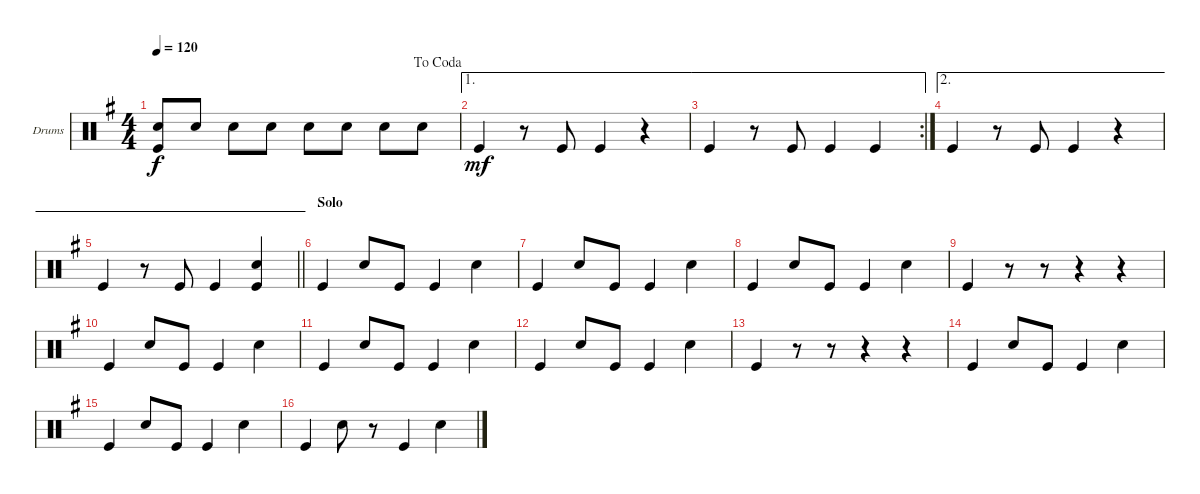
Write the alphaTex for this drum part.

\defaultSystemsLayout 4
\bracketExtendMode groupsimilarinstruments
\useSystemSignSeparator
\multiTrackTrackNamePolicy allsystems
\firstSystemTrackNameOrientation horizontal
\otherSystemsTrackNameOrientation horizontal
\track ("Drumkit" "Drums") {multiBarRest instrument percussion}
\staff {score}
\articulation defaults
\ts (4 4)
\jump dacoda
\tempo 120
\clef neutral
\ks g
("Kick (hit)" "Snare (hit) 2").8{dy f} "Snare (hit) 2".8 "Snare (hit) 2".8 "Snare (hit) 2".8 "Snare (hit) 2".8 "Snare (hit) 2".8 "Snare (hit) 2".8 "Snare (hit) 2".8 |
\ae 1 "Kick (hit)".4{dy mf}
r.8 "Kick (hit)".8 "Kick (hit)".4 r.4 |
\ae 1
\rc 2 "Kick (hit)".4
r.8 "Kick (hit)".8 "Kick (hit)".4 "Kick (hit)".4 |
\ae 2 "Kick (hit)".4
r.8 "Kick (hit)".8 "Kick (hit)".4 r.4 |
\ae 2
\barLineRight lightlight "Kick (hit)".4
r.8 "Kick (hit)".8 "Kick (hit)".4 ("Kick (hit)" "Snare (hit) 2").4 |
\section ("" "Solo")
"Kick (hit)".4 "Snare (hit) 2".8 "Kick (hit)".8 "Kick (hit)".4 "Snare (hit) 2".4 |
"Kick (hit)".4 "Snare (hit) 2".8 "Kick (hit)".8 "Kick (hit)".4 "Snare (hit) 2".4 |
"Kick (hit)".4 "Snare (hit) 2".8 "Kick (hit)".8 "Kick (hit)".4 "Snare (hit) 2".4 |
"Kick (hit)".4 r.8 r.8 r.4 r.4 |
\scale
0.316726 "Kick (hit)".4 "Snare (hit) 2".8 "Kick (hit)".8 "Kick (hit)".4 "Snare (hit) 2".4 |
\scale
0.213523 "Kick (hit)".4 "Snare (hit) 2".8 "Kick (hit)".8 "Kick (hit)".4 "Snare (hit) 2".4 |
\scale
0.214 "Kick (hit)".4 "Snare (hit) 2".8 "Kick (hit)".8 "Kick (hit)".4 "Snare (hit) 2".4 |
\scale
0.263015 "Kick (hit)".4 r.8 r.8 r.4 r.4 |
\scale
0.325005 "Kick (hit)".4 "Snare (hit) 2".8 "Kick (hit)".8 "Kick (hit)".4 "Snare (hit) 2".4 |
\scale
0.134622 "Kick (hit)".4 "Snare (hit) 2".8 "Kick (hit)".8 "Kick (hit)".4 "Snare (hit) 2".4 |
\scale
0.210526 "Kick (hit)".4 "Snare (hit) 2".8 r.8 "Kick (hit)".4 "Snare (hit) 2".4
